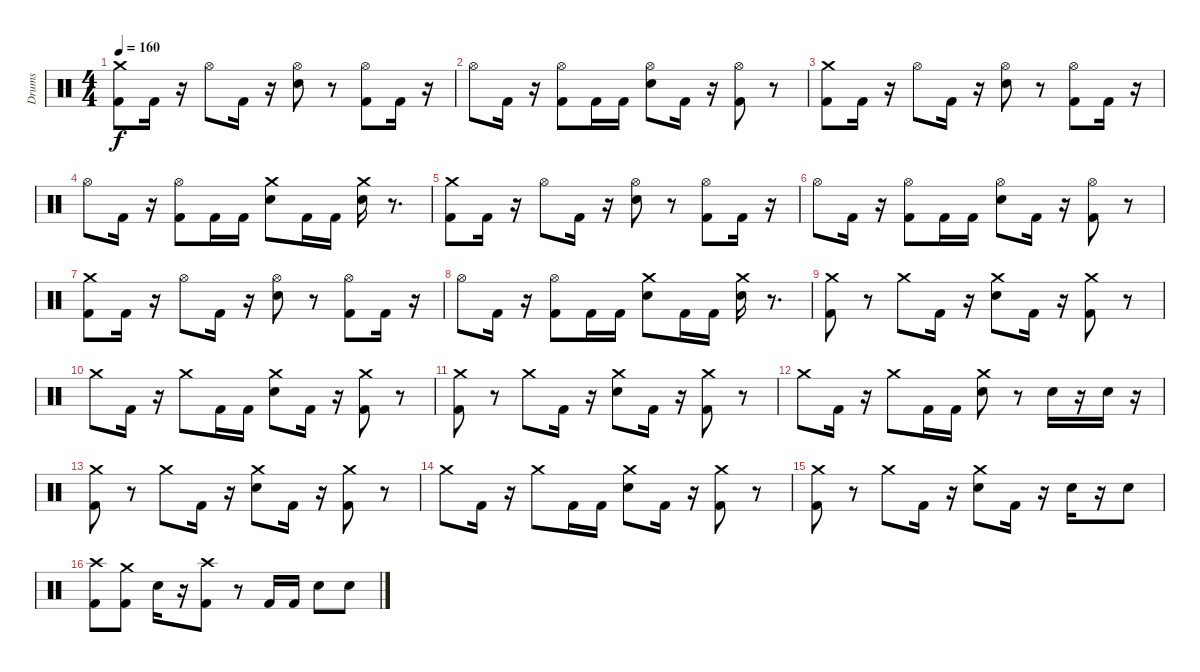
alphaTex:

\track ("Drums" "Drums") {instrument percussion}
\staff {score}
\articulation defaults
\ts (4 4)
\tempo 160
\clef neutral
\ks c
("Kick (hit) 2" "Crash medium (hit)").8{dy f} "Kick (hit) 2".16 r.16 "Hi-Hat (open)".8 "Kick (hit) 2".16 r.16 ("Electric Snare (hit)" "Hi-Hat (open)").8 r.8 ("Kick (hit) 2" "Hi-Hat (open)").8 "Kick (hit) 2".16 r.16 |
"Hi-Hat (open)".8 "Kick (hit) 2".16 r.16 ("Kick (hit) 2" "Hi-Hat (open)").8 "Kick (hit) 2".16 "Kick (hit) 2".16 ("Electric Snare (hit)" "Hi-Hat (open)").8 "Kick (hit) 2".16 r.16 ("Kick (hit) 2" "Hi-Hat (open)").8 r.8 |
("Kick (hit) 2" "Crash medium (hit)").8 "Kick (hit) 2".16 r.16 "Hi-Hat (open)".8 "Kick (hit) 2".16 r.16 ("Electric Snare (hit)" "Hi-Hat (open)").8 r.8 ("Kick (hit) 2" "Hi-Hat (open)").8 "Kick (hit) 2".16 r.16 |
"Hi-Hat (open)".8 "Kick (hit) 2".16 r.16 ("Kick (hit) 2" "Hi-Hat (open)").8 "Kick (hit) 2".16 "Kick (hit) 2".16 ("Electric Snare (hit)" "Crash medium (hit)").8 "Kick (hit) 2".16 "Kick (hit) 2".16 ("Crash medium (hit)" "Electric Snare (hit)").16 r.8{d} |
("Kick (hit) 2" "Crash medium (hit)").8 "Kick (hit) 2".16 r.16 "Hi-Hat (open)".8 "Kick (hit) 2".16 r.16 ("Electric Snare (hit)" "Hi-Hat (open)").8 r.8 ("Kick (hit) 2" "Hi-Hat (open)").8 "Kick (hit) 2".16 r.16 |
"Hi-Hat (open)".8 "Kick (hit) 2".16 r.16 ("Kick (hit) 2" "Hi-Hat (open)").8 "Kick (hit) 2".16 "Kick (hit) 2".16 ("Electric Snare (hit)" "Hi-Hat (open)").8 "Kick (hit) 2".16 r.16 ("Kick (hit) 2" "Hi-Hat (open)").8 r.8 |
("Kick (hit) 2" "Crash medium (hit)").8 "Kick (hit) 2".16 r.16 "Hi-Hat (open)".8 "Kick (hit) 2".16 r.16 ("Electric Snare (hit)" "Hi-Hat (open)").8 r.8 ("Kick (hit) 2" "Hi-Hat (open)").8 "Kick (hit) 2".16 r.16 |
"Hi-Hat (open)".8 "Kick (hit) 2".16 r.16 ("Kick (hit) 2" "Hi-Hat (open)").8 "Kick (hit) 2".16 "Kick (hit) 2".16 ("Electric Snare (hit)" "Crash medium (hit)").8 "Kick (hit) 2".16 "Kick (hit) 2".16 ("Crash medium (hit)" "Electric Snare (hit)").16 r.8{d} |
("Kick (hit) 2" "Crash medium (hit)").8 r.8 "Crash medium (hit)".8 "Kick (hit) 2".16 r.16 ("Electric Snare (hit)" "Crash medium (hit)").8 "Kick (hit) 2".16 r.16 ("Kick (hit) 2" "Crash medium (hit)").8 r.8 |
"Crash medium (hit)".8 "Kick (hit) 2".16 r.16 "Crash medium (hit)".8 "Kick (hit) 2".16 "Kick (hit) 2".16 ("Electric Snare (hit)" "Crash medium (hit)").8 "Kick (hit) 2".16 r.16 ("Kick (hit) 2" "Crash medium (hit)").8 r.8 |
("Kick (hit) 2" "Crash medium (hit)").8 r.8 "Crash medium (hit)".8 "Kick (hit) 2".16 r.16 ("Electric Snare (hit)" "Crash medium (hit)").8 "Kick (hit) 2".16 r.16 ("Kick (hit) 2" "Crash medium (hit)").8 r.8 |
"Crash medium (hit)".8 "Kick (hit) 2".16 r.16 "Crash medium (hit)".8 "Kick (hit) 2".16 "Kick (hit) 2".16 ("Electric Snare (hit)" "Crash medium (hit)").8 r.8 "Electric Snare (hit)".16 r.16 "Electric Snare (hit)".16 r.16 |
("Kick (hit) 2" "Crash medium (hit)").8 r.8 "Crash medium (hit)".8 "Kick (hit) 2".16 r.16 ("Electric Snare (hit)" "Crash medium (hit)").8 "Kick (hit) 2".16 r.16 ("Kick (hit) 2" "Crash medium (hit)").8 r.8 |
"Crash medium (hit)".8 "Kick (hit) 2".16 r.16 "Crash medium (hit)".8 "Kick (hit) 2".16 "Kick (hit) 2".16 ("Electric Snare (hit)" "Crash medium (hit)").8 "Kick (hit) 2".16 r.16 ("Kick (hit) 2" "Crash medium (hit)").8 r.8 |
("Kick (hit) 2" "Crash medium (hit)").8 r.8 "Crash medium (hit)".8 "Kick (hit) 2".16 r.16 ("Electric Snare (hit)" "Crash medium (hit)").8 "Kick (hit) 2".16 r.16 "Electric Snare (hit)".16 r.16 "Electric Snare (hit)".8 |
("Crash high (hit)" "Kick (hit) 2").8 ("Crash medium (hit)" "Kick (hit) 2").8 "Electric Snare (hit)".16 r.16 ("Crash high (hit)" "Kick (hit) 2").8 r.8 "Kick (hit) 2".16 "Kick (hit) 2".16 "Electric Snare (hit)".8 "Electric Snare (hit)".8
